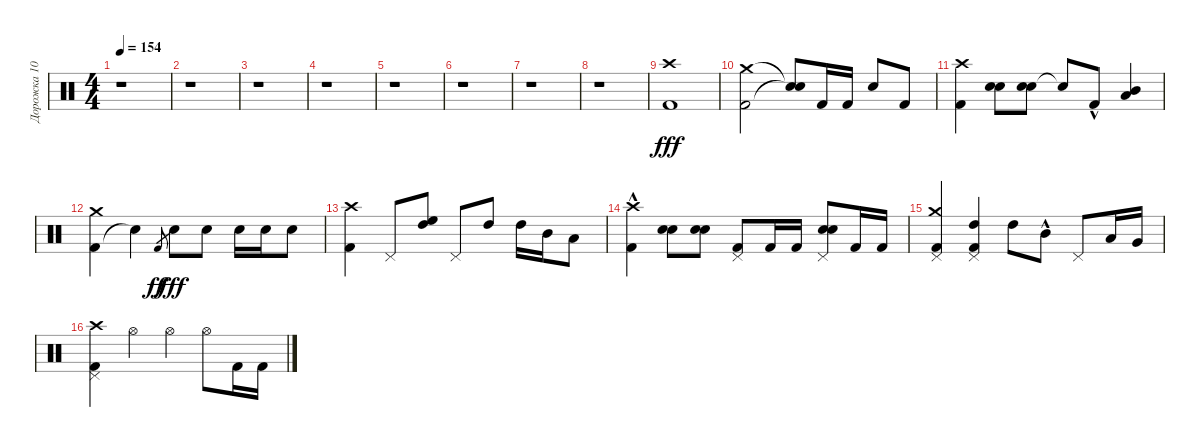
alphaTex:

\track ("Дорожка 10" "Дорожка 10") {instrument percussion}
\staff {score}
\articulation defaults
\ts (4 4)
\tempo 154
\clef neutral
\ks c
r.1{dy fff} |
r.1 |
r.1 |
r.1 |
r.1 |
r.1 |
r.1 |
r.1 |
("Crash high (hit)" "Kick (hit) 2").1 |
("Kick (hit) 2" "Crash medium (hit)").2 ("Snare (hit)"{t} "Snare (hit)"{t}).8 "Kick (hit) 2".16 "Kick (hit) 2".16 "Electric Snare (hit)".8 "Kick (hit) 2".8 |
("Kick (hit) 2" "Crash high (hit)").4 ("Electric Snare (hit)" "Electric Snare (hit)").8{bd 30} ("Electric Snare (hit)" "Electric Snare (hit)").8{bd 30} "Snare (hit)"{t}.8 "Kick (hit) 2"{hac}.8 ("Low Tom (hit)" "Mid Tom (hit)").4 |
("Kick (hit) 2" "Crash medium (hit)").4 "Snare (hit)"{t}.4 "Kick (hit) 2".8{gr dy ff} "Electric Snare (hit)".8{dy fff} "Electric Snare (hit)".8 "Electric Snare (hit)".16 "Electric Snare (hit)".16 "Electric Snare (hit)".8 |
("Kick (hit) 2" "Crash high (hit)").4 "Pedal Hi-Hat (hit)".8 ("High Tom (hit)" "High Floor Tom (hit)").8 "Pedal Hi-Hat (hit)".8 "High Tom (hit)".8 "High Tom (hit)".16 "Mid Tom (hit)".16 "Low Tom (hit)".8 |
("Kick (hit) 2" "Crash high (hit)"{hac}).4 ("Electric Snare (hit)" "Electric Snare (hit)").8 ("Electric Snare (hit)" "Electric Snare (hit)").8 ("Kick (hit) 2" "Pedal Hi-Hat (hit)").8 "Kick (hit) 2".16 "Kick (hit) 2".16 ("Electric Snare (hit)" "Electric Snare (hit)" "Pedal Hi-Hat (hit)").8 "Kick (hit) 2".16 "Kick (hit) 2".16 |
("Kick (hit) 2" "Pedal Hi-Hat (hit)" "Crash medium (hit)").4 ("Kick (hit) 2" "Pedal Hi-Hat (hit)" "High Tom (hit)").4 "High Tom (hit)".8 "Mid Tom (hit)"{hac}.8 "Pedal Hi-Hat (hit)".8 "Low Tom (hit)".16 "Very Low Tom (hit)".16 |
("Kick (hit) 2" "Pedal Hi-Hat (hit)" "Crash high (hit)").4 "Hi-Hat (open)".4 "Hi-Hat (open)".4 "Hi-Hat (open)".8 "Kick (hit) 2".16 "Kick (hit) 2".16
